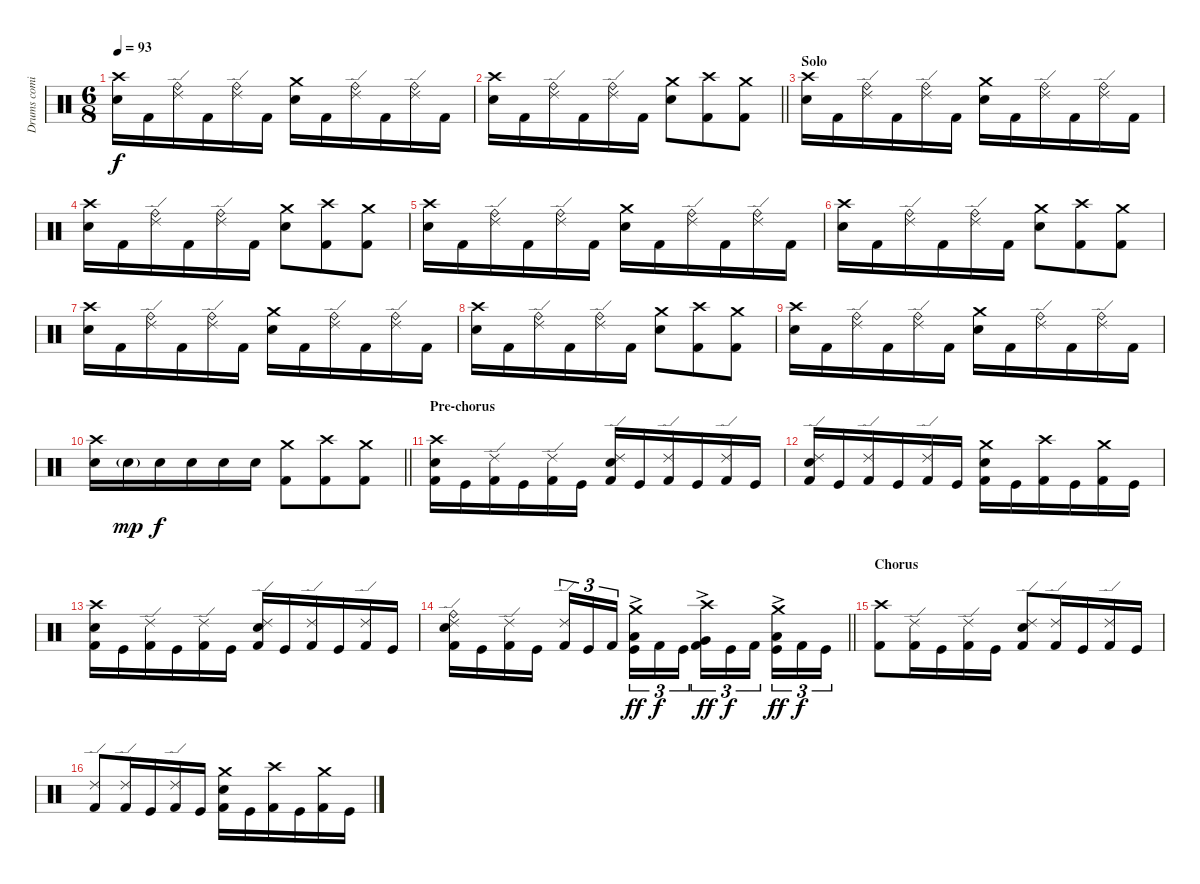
\track ("Drums coming soon" "Drums comi") {instrument percussion}
\staff {score}
\articulation defaults
\ts (6 8)
\tempo 93
\clef neutral
\ks c
("Crash high (hit)" "Snare (hit) 2").16{dy f} "Kick (hit) 2".16 ("Ride (edge) 2" "Ride (bell)").16 "Kick (hit) 2".16 ("Ride (edge) 2" "Ride (bell)").16 "Kick (hit) 2".16 ("Crash medium (hit)" "Snare (hit) 2").16 "Kick (hit) 2".16 ("Ride (edge) 2" "Ride (bell)").16 "Kick (hit) 2".16 ("Ride (edge) 2" "Ride (bell)").16 "Kick (hit) 2".16 |
\barLineRight lightlight
("Crash high (hit)" "Snare (hit) 2").16 "Kick (hit) 2".16 ("Ride (edge) 2" "Ride (bell)").16 "Kick (hit) 2".16 ("Ride (edge) 2" "Ride (bell)").16 "Kick (hit) 2".16 ("Crash medium (hit)" "Snare (hit) 2").8 ("Crash high (hit)" "Kick (hit) 2").8 ("Crash medium (hit)" "Kick (hit) 2").8 |
\section ("" "Solo")
("Crash high (hit)" "Snare (hit) 2").16 "Kick (hit) 2".16 ("Ride (edge) 2" "Ride (bell)").16 "Kick (hit) 2".16 ("Ride (edge) 2" "Ride (bell)").16 "Kick (hit) 2".16 ("Crash medium (hit)" "Snare (hit) 2").16 "Kick (hit) 2".16 ("Ride (edge) 2" "Ride (bell)").16 "Kick (hit) 2".16 ("Ride (edge) 2" "Ride (bell)").16 "Kick (hit) 2".16 |
("Crash high (hit)" "Snare (hit) 2").16 "Kick (hit) 2".16 ("Ride (edge) 2" "Ride (bell)").16 "Kick (hit) 2".16 ("Ride (edge) 2" "Ride (bell)").16 "Kick (hit) 2".16 ("Crash medium (hit)" "Snare (hit) 2").8 ("Crash high (hit)" "Kick (hit) 2").8 ("Crash medium (hit)" "Kick (hit) 2").8 |
("Crash high (hit)" "Snare (hit) 2").16 "Kick (hit) 2".16 ("Ride (edge) 2" "Ride (bell)").16 "Kick (hit) 2".16 ("Ride (edge) 2" "Ride (bell)").16 "Kick (hit) 2".16 ("Crash medium (hit)" "Snare (hit) 2").16 "Kick (hit) 2".16 ("Ride (edge) 2" "Ride (bell)").16 "Kick (hit) 2".16 ("Ride (edge) 2" "Ride (bell)").16 "Kick (hit) 2".16 |
("Crash high (hit)" "Snare (hit) 2").16 "Kick (hit) 2".16 ("Ride (edge) 2" "Ride (bell)").16 "Kick (hit) 2".16 ("Ride (edge) 2" "Ride (bell)").16 "Kick (hit) 2".16 ("Crash medium (hit)" "Snare (hit) 2").8 ("Crash high (hit)" "Kick (hit) 2").8 ("Crash medium (hit)" "Kick (hit) 2").8 |
("Crash high (hit)" "Snare (hit) 2").16 "Kick (hit) 2".16 ("Ride (edge) 2" "Ride (bell)").16 "Kick (hit) 2".16 ("Ride (edge) 2" "Ride (bell)").16 "Kick (hit) 2".16 ("Crash medium (hit)" "Snare (hit) 2").16 "Kick (hit) 2".16 ("Ride (edge) 2" "Ride (bell)").16 "Kick (hit) 2".16 ("Ride (edge) 2" "Ride (bell)").16 "Kick (hit) 2".16 |
("Crash high (hit)" "Snare (hit) 2").16 "Kick (hit) 2".16 ("Ride (edge) 2" "Ride (bell)").16 "Kick (hit) 2".16 ("Ride (edge) 2" "Ride (bell)").16 "Kick (hit) 2".16 ("Crash medium (hit)" "Snare (hit) 2").8 ("Crash high (hit)" "Kick (hit) 2").8 ("Crash medium (hit)" "Kick (hit) 2").8 |
("Crash high (hit)" "Snare (hit) 2").16 "Kick (hit) 2".16 ("Ride (edge) 2" "Ride (bell)").16 "Kick (hit) 2".16 ("Ride (edge) 2" "Ride (bell)").16 "Kick (hit) 2".16 ("Crash medium (hit)" "Snare (hit) 2").16 "Kick (hit) 2".16 ("Ride (edge) 2" "Ride (bell)").16 "Kick (hit) 2".16 ("Ride (edge) 2" "Ride (bell)").16 "Kick (hit) 2".16 |
\barLineRight lightlight
("Crash high (hit)" "Snare (hit) 2").16 "Snare (hit) 2"{g}.16{dy mp} "Snare (hit) 2".16{dy f} "Snare (hit) 2".16 "Snare (hit) 2".16 "Snare (hit) 2".16 ("Crash medium (hit)" "Kick (hit) 2").8 ("Crash high (hit)" "Kick (hit) 2").8 ("Crash medium (hit)" "Kick (hit) 2").8 |
\section ("" "Pre-chorus")
("Crash high (hit)" "Snare (hit) 2" "Kick (hit) 2").16 "Kick (hit)".16 ("Ride (edge) 2" "Kick (hit) 2").16 "Kick (hit)".16 ("Ride (edge) 2" "Kick (hit) 2").16 "Kick (hit)".16 ("Ride (edge) 2" "Snare (hit) 2" "Kick (hit) 2").16 "Kick (hit)".16 ("Ride (edge) 2" "Kick (hit) 2").16 "Kick (hit)".16 ("Ride (edge) 2" "Kick (hit) 2").16 "Kick (hit)".16 |
("Ride (edge) 2" "Snare (hit) 2" "Kick (hit) 2").16 "Kick (hit)".16 ("Ride (edge) 2" "Kick (hit) 2").16 "Kick (hit)".16 ("Ride (edge) 2" "Kick (hit) 2").16 "Kick (hit)".16 ("Crash medium (hit)" "Snare (hit) 2" "Kick (hit) 2").16 "Kick (hit)".16 ("Crash high (hit)" "Kick (hit) 2").16 "Kick (hit)".16 ("Crash medium (hit)" "Kick (hit) 2").16 "Kick (hit)".16 |
("Crash high (hit)" "Snare (hit) 2" "Kick (hit) 2").16 "Kick (hit)".16 ("Ride (edge) 2" "Kick (hit) 2").16 "Kick (hit)".16 ("Ride (edge) 2" "Kick (hit) 2").16 "Kick (hit)".16 ("Ride (edge) 2" "Snare (hit) 2" "Kick (hit) 2").16 "Kick (hit)".16 ("Ride (edge) 2" "Kick (hit) 2").16 "Kick (hit)".16 ("Ride (edge) 2" "Kick (hit) 2").16 "Kick (hit)".16 |
\barLineRight lightlight
("Ride (edge) 2" "Ride (bell)" "Snare (hit) 2" "Kick (hit) 2").16 "Kick (hit)".16 ("Ride (edge) 2" "Kick (hit) 2").16 "Kick (hit)".16{beam splitsecondary} ("Ride (edge) 2" "Kick (hit) 2").16{tu (3 2)} "Kick (hit)".16{tu (3 2)} "Kick (hit) 2".16{tu (3 2)} ("Crash medium (hit)" "Low Tom (hit)"{ac} "Kick (hit)").16{tu (3 2) dy ff} "Kick (hit) 2".16{tu (3 2) dy f} "Kick (hit)".16{tu (3 2) beam splitsecondary} ("Crash high (hit)" "Very Low Tom (hit)"{ac} "Kick (hit) 2").16{tu (3 2) dy ff} "Kick (hit)".16{tu (3 2) dy f} "Kick (hit) 2".16{tu (3 2) beam splitsecondary} ("Crash medium (hit)" "Low Floor Tom (hit)"{ac} "Kick (hit)").16{tu (3 2) dy ff} "Kick (hit) 2".16{tu (3 2) dy f} "Kick (hit)".16{tu (3 2)} |
\section ("" "Chorus")
("Crash high (hit)" "Kick (hit) 2").8 ("Ride (edge) 2" "Kick (hit) 2").16 "Kick (hit)".16 ("Ride (edge) 2" "Kick (hit) 2").16 "Kick (hit)".16 ("Ride (edge) 2" "Snare (hit) 2" "Kick (hit) 2").8 ("Ride (edge) 2" "Kick (hit) 2").16 "Kick (hit)".16 ("Ride (edge) 2" "Kick (hit) 2").16 "Kick (hit)".16 |
("Ride (edge) 2" "Kick (hit) 2").8 ("Ride (edge) 2" "Kick (hit) 2").16 "Kick (hit)".16 ("Ride (edge) 2" "Kick (hit) 2").16 "Kick (hit)".16 ("Crash medium (hit)" "Snare (hit) 2" "Kick (hit) 2").16 "Kick (hit)".16 ("Crash high (hit)" "Kick (hit) 2").16 "Kick (hit)".16 ("Crash medium (hit)" "Kick (hit) 2").16 "Kick (hit)".16
